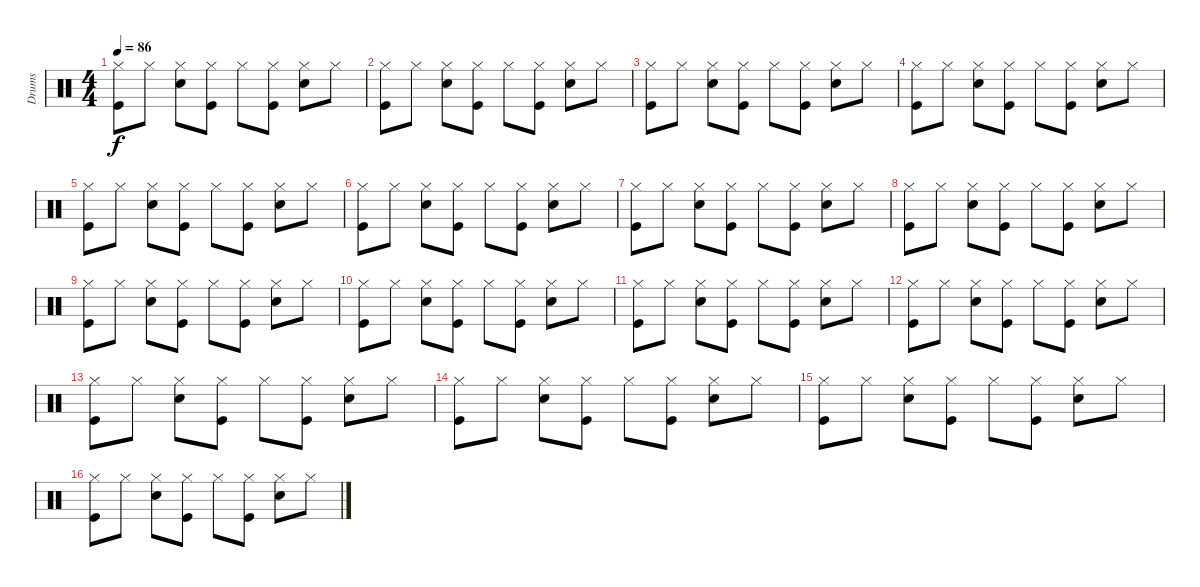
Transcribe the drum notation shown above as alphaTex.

\track ("Drums" "Drums") {instrument percussion}
\staff {score}
\articulation defaults
\ts (4 4)
\tempo 86
\clef neutral
\ks c
("Hi-Hat (closed)" "Kick (hit)").8{dy f} "Hi-Hat (closed)".8 ("Hi-Hat (closed)" "Snare (hit) 2").8 ("Hi-Hat (closed)" "Kick (hit)").8 "Hi-Hat (closed)".8 ("Hi-Hat (closed)" "Kick (hit)").8 ("Hi-Hat (closed)" "Snare (hit) 2").8 "Hi-Hat (closed)".8 |
("Hi-Hat (closed)" "Kick (hit)").8 "Hi-Hat (closed)".8 ("Hi-Hat (closed)" "Snare (hit) 2").8 ("Hi-Hat (closed)" "Kick (hit)").8 "Hi-Hat (closed)".8 ("Hi-Hat (closed)" "Kick (hit)").8 ("Hi-Hat (closed)" "Snare (hit) 2").8 "Hi-Hat (closed)".8 |
("Hi-Hat (closed)" "Kick (hit)").8 "Hi-Hat (closed)".8 ("Hi-Hat (closed)" "Snare (hit) 2").8 ("Hi-Hat (closed)" "Kick (hit)").8 "Hi-Hat (closed)".8 ("Hi-Hat (closed)" "Kick (hit)").8 ("Hi-Hat (closed)" "Snare (hit) 2").8 "Hi-Hat (closed)".8 |
("Hi-Hat (closed)" "Kick (hit)").8 "Hi-Hat (closed)".8 ("Hi-Hat (closed)" "Snare (hit) 2").8 ("Hi-Hat (closed)" "Kick (hit)").8 "Hi-Hat (closed)".8 ("Hi-Hat (closed)" "Kick (hit)").8 ("Hi-Hat (closed)" "Snare (hit) 2").8 "Hi-Hat (closed)".8 |
("Hi-Hat (closed)" "Kick (hit)").8 "Hi-Hat (closed)".8 ("Hi-Hat (closed)" "Snare (hit) 2").8 ("Hi-Hat (closed)" "Kick (hit)").8 "Hi-Hat (closed)".8 ("Hi-Hat (closed)" "Kick (hit)").8 ("Hi-Hat (closed)" "Snare (hit) 2").8 "Hi-Hat (closed)".8 |
("Hi-Hat (closed)" "Kick (hit)").8 "Hi-Hat (closed)".8 ("Hi-Hat (closed)" "Snare (hit) 2").8 ("Hi-Hat (closed)" "Kick (hit)").8 "Hi-Hat (closed)".8 ("Hi-Hat (closed)" "Kick (hit)").8 ("Hi-Hat (closed)" "Snare (hit) 2").8 "Hi-Hat (closed)".8 |
("Hi-Hat (closed)" "Kick (hit)").8 "Hi-Hat (closed)".8 ("Hi-Hat (closed)" "Snare (hit) 2").8 ("Hi-Hat (closed)" "Kick (hit)").8 "Hi-Hat (closed)".8 ("Hi-Hat (closed)" "Kick (hit)").8 ("Hi-Hat (closed)" "Snare (hit) 2").8 "Hi-Hat (closed)".8 |
("Hi-Hat (closed)" "Kick (hit)").8 "Hi-Hat (closed)".8 ("Hi-Hat (closed)" "Snare (hit) 2").8 ("Hi-Hat (closed)" "Kick (hit)").8 "Hi-Hat (closed)".8 ("Hi-Hat (closed)" "Kick (hit)").8 ("Hi-Hat (closed)" "Snare (hit) 2").8 "Hi-Hat (closed)".8 |
("Hi-Hat (closed)" "Kick (hit)").8 "Hi-Hat (closed)".8 ("Hi-Hat (closed)" "Snare (hit) 2").8 ("Hi-Hat (closed)" "Kick (hit)").8 "Hi-Hat (closed)".8 ("Hi-Hat (closed)" "Kick (hit)").8 ("Hi-Hat (closed)" "Snare (hit) 2").8 "Hi-Hat (closed)".8 |
("Hi-Hat (closed)" "Kick (hit)").8 "Hi-Hat (closed)".8 ("Hi-Hat (closed)" "Snare (hit) 2").8 ("Hi-Hat (closed)" "Kick (hit)").8 "Hi-Hat (closed)".8 ("Hi-Hat (closed)" "Kick (hit)").8 ("Hi-Hat (closed)" "Snare (hit) 2").8 "Hi-Hat (closed)".8 |
("Hi-Hat (closed)" "Kick (hit)").8 "Hi-Hat (closed)".8 ("Hi-Hat (closed)" "Snare (hit) 2").8 ("Hi-Hat (closed)" "Kick (hit)").8 "Hi-Hat (closed)".8 ("Hi-Hat (closed)" "Kick (hit)").8 ("Hi-Hat (closed)" "Snare (hit) 2").8 "Hi-Hat (closed)".8 |
("Hi-Hat (closed)" "Kick (hit)").8 "Hi-Hat (closed)".8 ("Hi-Hat (closed)" "Snare (hit) 2").8 ("Hi-Hat (closed)" "Kick (hit)").8 "Hi-Hat (closed)".8 ("Hi-Hat (closed)" "Kick (hit)").8 ("Hi-Hat (closed)" "Snare (hit) 2").8 "Hi-Hat (closed)".8 |
("Hi-Hat (closed)" "Kick (hit)").8 "Hi-Hat (closed)".8 ("Hi-Hat (closed)" "Snare (hit) 2").8 ("Hi-Hat (closed)" "Kick (hit)").8 "Hi-Hat (closed)".8 ("Hi-Hat (closed)" "Kick (hit)").8 ("Hi-Hat (closed)" "Snare (hit) 2").8 "Hi-Hat (closed)".8 |
("Hi-Hat (closed)" "Kick (hit)").8 "Hi-Hat (closed)".8 ("Hi-Hat (closed)" "Snare (hit) 2").8 ("Hi-Hat (closed)" "Kick (hit)").8 "Hi-Hat (closed)".8 ("Hi-Hat (closed)" "Kick (hit)").8 ("Hi-Hat (closed)" "Snare (hit) 2").8 "Hi-Hat (closed)".8 |
("Hi-Hat (closed)" "Kick (hit)").8 "Hi-Hat (closed)".8 ("Hi-Hat (closed)" "Snare (hit) 2").8 ("Hi-Hat (closed)" "Kick (hit)").8 "Hi-Hat (closed)".8 ("Hi-Hat (closed)" "Kick (hit)").8 ("Hi-Hat (closed)" "Snare (hit) 2").8 "Hi-Hat (closed)".8 |
("Hi-Hat (closed)" "Kick (hit)").8 "Hi-Hat (closed)".8 ("Hi-Hat (closed)" "Snare (hit) 2").8 ("Hi-Hat (closed)" "Kick (hit)").8 "Hi-Hat (closed)".8 ("Hi-Hat (closed)" "Kick (hit)").8 ("Hi-Hat (closed)" "Snare (hit) 2").8 "Hi-Hat (closed)".8
